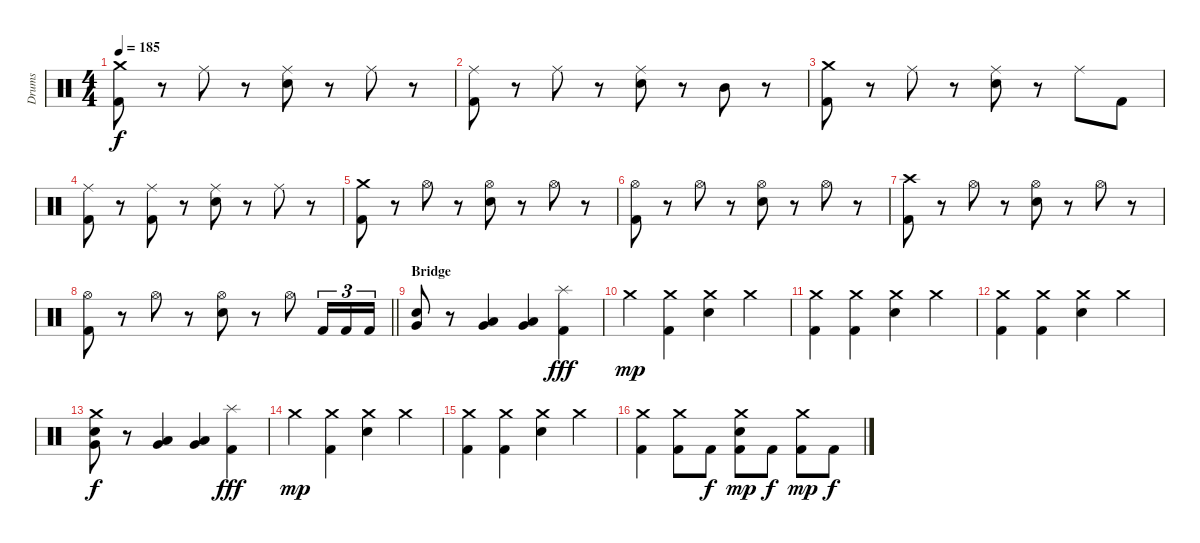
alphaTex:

\track ("Drums" "Drums") {instrument percussion}
\staff {score}
\articulation defaults
\ts (4 4)
\tempo 185
\clef neutral
\ks c
("Crash medium (hit)" "Kick (hit) 2").8{dy f} r.8 "Ride (middle)".8 r.8 ("Ride (middle)" "Electric Snare (hit)").8 r.8 "Ride (middle)".8 r.8 |
("Ride (middle)" "Kick (hit) 2").8 r.8 "Ride (middle)".8 r.8 ("Ride (middle)" "Electric Snare (hit)").8 r.8 "Mid Tom (hit)".8 r.8 |
("Crash medium (hit)" "Kick (hit) 2").8 r.8 "Ride (middle)".8 r.8 ("Ride (middle)" "Electric Snare (hit)").8 r.8 "Ride (middle)".8 "Kick (hit) 2".8 |
("Ride (middle)" "Kick (hit) 2").8 r.8 ("Ride (middle)" "Kick (hit) 2").8 r.8 ("Ride (middle)" "Electric Snare (hit)").8 r.8 "Ride (middle)".8 r.8 |
("Crash medium (hit)" "Kick (hit) 2").8 r.8 "Hi-Hat (open)".8 r.8 ("Hi-Hat (open)" "Electric Snare (hit)").8 r.8 "Hi-Hat (open)".8 r.8 |
("Hi-Hat (open)" "Kick (hit) 2").8 r.8 "Hi-Hat (open)".8 r.8 ("Hi-Hat (open)" "Electric Snare (hit)").8 r.8 "Hi-Hat (open)".8 r.8 |
("Crash high (hit)" "Kick (hit) 2").8 r.8 "Hi-Hat (open)".8 r.8 ("Hi-Hat (open)" "Electric Snare (hit)").8 r.8 "Hi-Hat (open)".8 r.8 |
\barLineRight lightlight
("Hi-Hat (open)" "Kick (hit) 2").8 r.8 "Hi-Hat (open)".8 r.8 ("Hi-Hat (open)" "Electric Snare (hit)").8 r.8 "Hi-Hat (open)".8 "Kick (hit) 2".16{tu (3 2)} "Kick (hit) 2".16{tu (3 2)} "Kick (hit) 2".16{tu (3 2)} |
\section ("" "Bridge")
("Very Low Tom (hit)" "Electric Snare (hit)").8 r.8 ("Low Tom (hit)" "Very Low Tom (hit)").4 ("Low Tom (hit)" "Very Low Tom (hit)").4 ("Splash (hit)" "Kick (hit) 2").4{dy fff} |
"Crash medium (hit)".4{dy mp} ("Crash medium (hit)" "Kick (hit) 2").4 ("Crash medium (hit)" "Electric Snare (hit)").4 "Crash medium (hit)".4 |
("Crash medium (hit)" "Kick (hit) 2").4 ("Crash medium (hit)" "Kick (hit) 2").4 ("Crash medium (hit)" "Electric Snare (hit)").4 "Crash medium (hit)".4 |
("Crash medium (hit)" "Kick (hit) 2").4 ("Crash medium (hit)" "Kick (hit) 2").4 ("Crash medium (hit)" "Electric Snare (hit)").4 "Crash medium (hit)".4 |
("Crash medium (hit)" "Very Low Tom (hit)" "Electric Snare (hit)").8{dy f} r.8 ("Low Tom (hit)" "Very Low Tom (hit)").4 ("Low Tom (hit)" "Very Low Tom (hit)").4 ("Splash (hit)" "Kick (hit) 2").4{dy fff} |
"Crash medium (hit)".4{dy mp} ("Crash medium (hit)" "Kick (hit) 2").4 ("Crash medium (hit)" "Electric Snare (hit)").4 "Crash medium (hit)".4 |
("Crash medium (hit)" "Kick (hit) 2").4 ("Crash medium (hit)" "Kick (hit) 2").4 ("Crash medium (hit)" "Electric Snare (hit)").4 "Crash medium (hit)".4 |
("Crash medium (hit)" "Kick (hit) 2").4 ("Crash medium (hit)" "Kick (hit) 2").8 "Kick (hit) 2".8{dy f} ("Crash medium (hit)" "Electric Snare (hit)" "Kick (hit) 2").8{dy mp} "Kick (hit) 2".8{dy f} ("Crash medium (hit)" "Kick (hit) 2").8{dy mp} "Kick (hit) 2".8{dy f}
